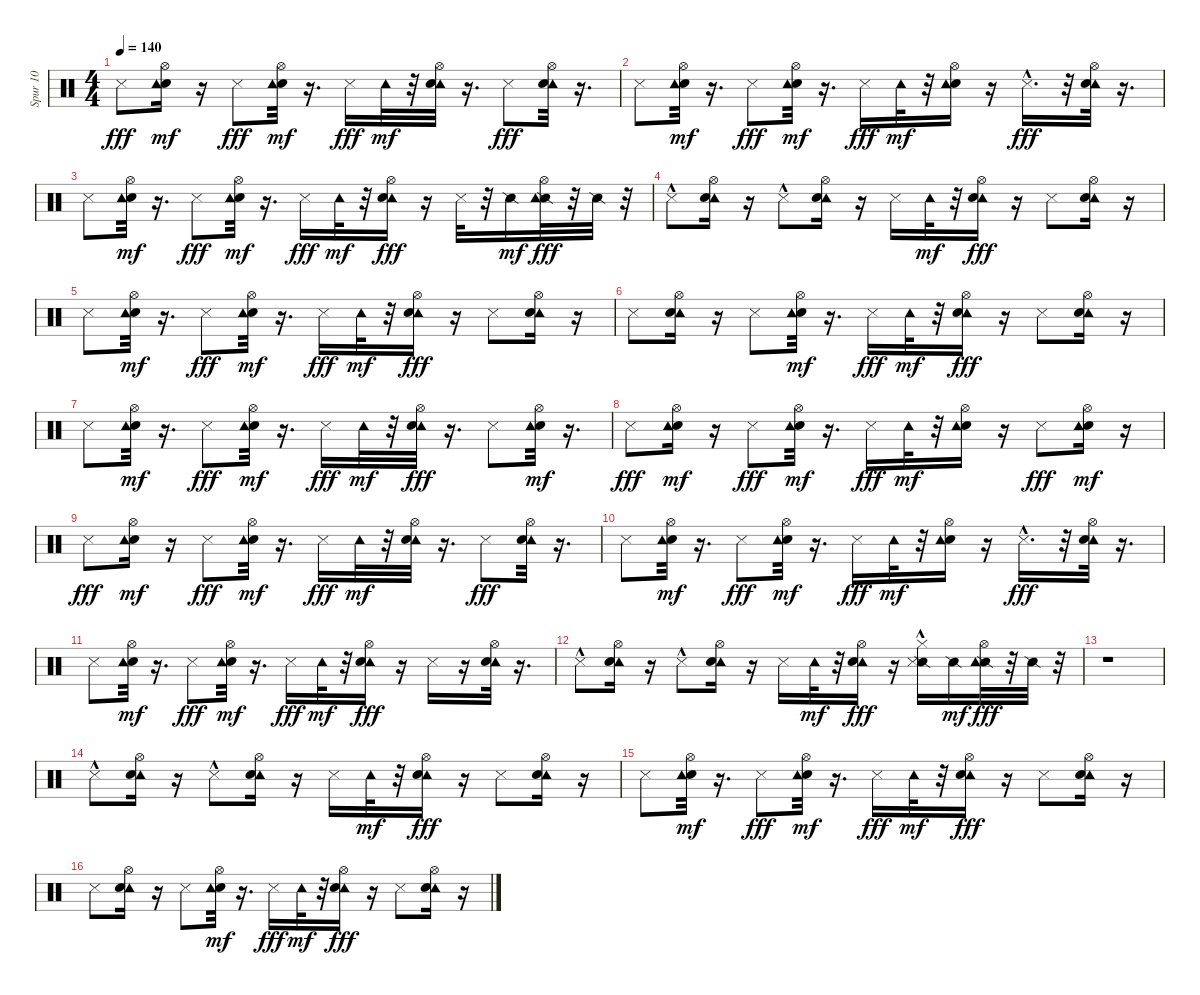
\track ("Spur 10" "Spur 10") {instrument percussion}
\staff {score}
\articulation defaults
\ts (4 4)
\tempo 140
\clef neutral
\ks c "Metronome (hit)".8{dy fff}
("Hi-Hat (open)" "Snare (hit)" "Tambourine (hit)").16{dy mf} r.16 "Metronome (hit)".8{dy fff} ("Hi-Hat (open)" "Snare (hit)" "Tambourine (hit)").32{dy mf} r.16{d} "Metronome (hit)".16{dy fff} "Tambourine (hit)".32{dy mf} r.32 ("Tambourine (hit)" "Snare (hit)" "Hi-Hat (open)").32 r.16{d} "Metronome (hit)".8{dy fff} ("Tambourine (hit)" "Hi-Hat (open)" "Snare (hit)").32 r.16{d} |
"Metronome (hit)".8 ("Hi-Hat (open)" "Snare (hit)" "Tambourine (hit)").32{dy mf} r.16{d} "Metronome (hit)".8{dy fff} ("Hi-Hat (open)" "Snare (hit)" "Tambourine (hit)").32{dy mf} r.16{d} "Metronome (hit)".16{dy fff} "Tambourine (hit)".32{dy mf} r.32 ("Hi-Hat (open)" "Snare (hit)" "Tambourine (hit)").16 r.16 "Metronome (hit)"{hac}.16{d dy fff} r.32 ("Tambourine (hit)" "Hi-Hat (open)" "Snare (hit)").32 r.16{d} |
"Metronome (hit)".8 ("Hi-Hat (open)" "Snare (hit)" "Tambourine (hit)").32{dy mf} r.16{d} "Metronome (hit)".8{dy fff} ("Hi-Hat (open)" "Snare (hit)" "Tambourine (hit)").32{dy mf} r.16{d} "Metronome (hit)".16{dy fff} "Tambourine (hit)".32{dy mf} r.32 ("Tambourine (hit)" "Hi-Hat (open)" "Snare (hit)").16{dy fff} r.16 "Metronome (hit)".32 r.32 "Snare (side stick) 2".16{dy mf} ("Hi-Hat (open)" "Snare (side stick) 2" "Tambourine (hit)").32{dy fff} r.32 "Snare (side stick) 2".32 r.32 |
"Metronome (hit)"{hac}.8 ("Tambourine (hit)" "Hi-Hat (open)" "Snare (hit)").16 r.16 "Metronome (hit)"{hac}.8 ("Tambourine (hit)" "Hi-Hat (open)" "Snare (hit)").16 r.16 "Metronome (hit)".16 "Tambourine (hit)".32{dy mf} r.32 ("Tambourine (hit)" "Hi-Hat (open)" "Snare (hit)").16{dy fff} r.16 "Metronome (hit)".8 ("Tambourine (hit)" "Hi-Hat (open)" "Snare (hit)").16 r.16 |
"Metronome (hit)".8 ("Hi-Hat (open)" "Snare (hit)" "Tambourine (hit)").32{dy mf} r.16{d} "Metronome (hit)".8{dy fff} ("Hi-Hat (open)" "Snare (hit)" "Tambourine (hit)").32{dy mf} r.16{d} "Metronome (hit)".16{dy fff} "Tambourine (hit)".32{dy mf} r.32 ("Tambourine (hit)" "Hi-Hat (open)" "Snare (hit)").16{dy fff} r.16 "Metronome (hit)".8 ("Tambourine (hit)" "Hi-Hat (open)" "Snare (hit)").16 r.16 |
"Metronome (hit)".8 ("Tambourine (hit)" "Hi-Hat (open)" "Snare (hit)").16 r.16 "Metronome (hit)".8 ("Hi-Hat (open)" "Snare (hit)" "Tambourine (hit)").32{dy mf} r.16{d} "Metronome (hit)".16{dy fff} "Tambourine (hit)".32{dy mf} r.32 ("Tambourine (hit)" "Hi-Hat (open)" "Snare (hit)").16{dy fff} r.16 "Metronome (hit)".8 ("Tambourine (hit)" "Hi-Hat (open)" "Snare (hit)").16 r.16 |
"Metronome (hit)".8 ("Snare (hit)" "Hi-Hat (open)" "Tambourine (hit)").32{dy mf} r.16{d} "Metronome (hit)".8{dy fff} ("Hi-Hat (open)" "Snare (hit)" "Tambourine (hit)").32{dy mf} r.16{d} "Metronome (hit)".16{dy fff} "Tambourine (hit)".32{dy mf} r.32 ("Tambourine (hit)" "Hi-Hat (open)" "Snare (hit)").32{dy fff} r.16{d} "Metronome (hit)".8 ("Hi-Hat (open)" "Snare (hit)" "Tambourine (hit)").32{dy mf} r.16{d} |
"Metronome (hit)".8{dy fff} ("Hi-Hat (open)" "Snare (hit)" "Tambourine (hit)").16{dy mf} r.16 "Metronome (hit)".8{dy fff} ("Hi-Hat (open)" "Snare (hit)" "Tambourine (hit)").32{dy mf} r.16{d} "Metronome (hit)".16{dy fff} "Tambourine (hit)".32{dy mf} r.32 ("Hi-Hat (open)" "Snare (hit)" "Tambourine (hit)").16 r.16 "Metronome (hit)".8{dy fff} ("Snare (hit)" "Hi-Hat (open)" "Tambourine (hit)").16{dy mf} r.16 |
"Metronome (hit)".8{dy fff} ("Hi-Hat (open)" "Snare (hit)" "Tambourine (hit)").16{dy mf} r.16 "Metronome (hit)".8{dy fff} ("Hi-Hat (open)" "Snare (hit)" "Tambourine (hit)").32{dy mf} r.16{d} "Metronome (hit)".16{dy fff} "Tambourine (hit)".32{dy mf} r.32 ("Tambourine (hit)" "Snare (hit)" "Hi-Hat (open)").32 r.16{d} "Metronome (hit)".8{dy fff} ("Tambourine (hit)" "Hi-Hat (open)" "Snare (hit)").32 r.16{d} |
"Metronome (hit)".8 ("Hi-Hat (open)" "Snare (hit)" "Tambourine (hit)").32{dy mf} r.16{d} "Metronome (hit)".8{dy fff} ("Hi-Hat (open)" "Snare (hit)" "Tambourine (hit)").32{dy mf} r.16{d} "Metronome (hit)".16{dy fff} "Tambourine (hit)".32{dy mf} r.32 ("Hi-Hat (open)" "Snare (hit)" "Tambourine (hit)").16 r.16 "Metronome (hit)"{hac}.16{d dy fff} r.32 ("Tambourine (hit)" "Hi-Hat (open)" "Snare (hit)").32 r.16{d} |
"Metronome (hit)".8 ("Hi-Hat (open)" "Snare (hit)" "Tambourine (hit)").32{dy mf} r.16{d} "Metronome (hit)".8{dy fff} ("Hi-Hat (open)" "Snare (hit)" "Tambourine (hit)").32{dy mf} r.16{d} "Metronome (hit)".16{dy fff} "Tambourine (hit)".32{dy mf} r.32 ("Tambourine (hit)" "Hi-Hat (open)" "Snare (hit)").16{dy fff} r.16 "Metronome (hit)".16 r.16 ("Tambourine (hit)" "Hi-Hat (open)" "Snare (hit)").32 r.16{d} |
"Metronome (hit)"{hac}.8 ("Tambourine (hit)" "Hi-Hat (open)" "Snare (hit)").16 r.16 "Metronome (hit)"{hac}.8 ("Tambourine (hit)" "Hi-Hat (open)" "Snare (hit)").16 r.16 "Metronome (hit)".16 "Tambourine (hit)".32{dy mf} r.32 ("Tambourine (hit)" "Hi-Hat (open)" "Snare (hit)").16{dy fff} r.16 ("Snare (side stick) 2" "Hi-Hat (closed)"{hac} "Metronome (hit)").16 "Snare (side stick) 2".16{dy mf} ("Hi-Hat (open)" "Snare (side stick) 2" "Tambourine (hit)").32{dy fff} r.32 "Snare (side stick) 2".32 r.32 |
r.1 |
"Metronome (hit)"{hac}.8 ("Tambourine (hit)" "Hi-Hat (open)" "Snare (hit)").16 r.16 "Metronome (hit)"{hac}.8 ("Tambourine (hit)" "Hi-Hat (open)" "Snare (hit)").16 r.16 "Metronome (hit)".16 "Tambourine (hit)".32{dy mf} r.32 ("Tambourine (hit)" "Hi-Hat (open)" "Snare (hit)").16{dy fff} r.16 "Metronome (hit)".8 ("Tambourine (hit)" "Hi-Hat (open)" "Snare (hit)").16 r.16 |
"Metronome (hit)".8 ("Hi-Hat (open)" "Snare (hit)" "Tambourine (hit)").32{dy mf} r.16{d} "Metronome (hit)".8{dy fff} ("Hi-Hat (open)" "Snare (hit)" "Tambourine (hit)").32{dy mf} r.16{d} "Metronome (hit)".16{dy fff} "Tambourine (hit)".32{dy mf} r.32 ("Tambourine (hit)" "Hi-Hat (open)" "Snare (hit)").16{dy fff} r.16 "Metronome (hit)".8 ("Tambourine (hit)" "Hi-Hat (open)" "Snare (hit)").16 r.16 |
"Metronome (hit)".8 ("Tambourine (hit)" "Hi-Hat (open)" "Snare (hit)").16 r.16 "Metronome (hit)".8 ("Hi-Hat (open)" "Snare (hit)" "Tambourine (hit)").32{dy mf} r.16{d} "Metronome (hit)".16{dy fff} "Tambourine (hit)".32{dy mf} r.32 ("Tambourine (hit)" "Hi-Hat (open)" "Snare (hit)").16{dy fff} r.16 "Metronome (hit)".8 ("Tambourine (hit)" "Hi-Hat (open)" "Snare (hit)").16 r.16
